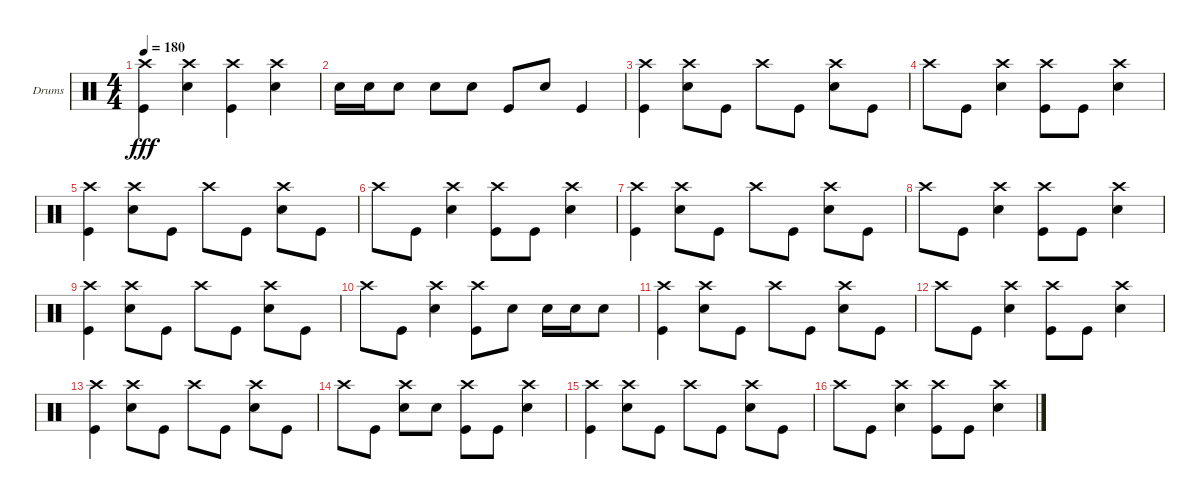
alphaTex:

\defaultSystemsLayout 4
\bracketExtendMode groupsimilarinstruments
\firstSystemTrackNameOrientation horizontal
\otherSystemsTrackNameOrientation horizontal
\track ("Drumkit" "Drums") {instrument percussion}
\staff {score}
\articulation defaults
\ts (4 4)
\tempo 180
\clef neutral
\ks c
("Kick (hit)" "Crash high (hit)").4{dy fff} ("Snare (hit) 2" "Crash high (hit)").4 ("Kick (hit)" "Crash high (hit)").4 ("Snare (hit) 2" "Crash high (hit)").4 |
"Snare (hit) 2".16 "Snare (hit) 2".16 "Snare (hit) 2".8 "Snare (hit) 2".8 "Snare (hit) 2".8 "Kick (hit)".8 "Snare (hit) 2".8 "Kick (hit)".4 |
("Kick (hit)" "Crash high (hit)").4 ("Snare (hit) 2" "Crash high (hit)").8 "Kick (hit)".8 "Crash high (hit)".8 "Kick (hit)".8 ("Snare (hit) 2" "Crash high (hit)").8 "Kick (hit)".8 |
"Crash high (hit)".8 "Kick (hit)".8 ("Snare (hit) 2" "Crash high (hit)").4 ("Kick (hit)" "Crash high (hit)").8 "Kick (hit)".8 ("Snare (hit) 2" "Crash high (hit)").4 |
("Kick (hit)" "Crash high (hit)").4 ("Snare (hit) 2" "Crash high (hit)").8 "Kick (hit)".8 "Crash high (hit)".8 "Kick (hit)".8 ("Snare (hit) 2" "Crash high (hit)").8 "Kick (hit)".8 |
"Crash high (hit)".8 "Kick (hit)".8 ("Snare (hit) 2" "Crash high (hit)").4 ("Kick (hit)" "Crash high (hit)").8 "Kick (hit)".8 ("Snare (hit) 2" "Crash high (hit)").4 |
("Kick (hit)" "Crash high (hit)").4 ("Snare (hit) 2" "Crash high (hit)").8 "Kick (hit)".8 "Crash high (hit)".8 "Kick (hit)".8 ("Snare (hit) 2" "Crash high (hit)").8 "Kick (hit)".8 |
"Crash high (hit)".8 "Kick (hit)".8 ("Snare (hit) 2" "Crash high (hit)").4 ("Kick (hit)" "Crash high (hit)").8 "Kick (hit)".8 ("Snare (hit) 2" "Crash high (hit)").4 |
("Kick (hit)" "Crash high (hit)").4 ("Snare (hit) 2" "Crash high (hit)").8 "Kick (hit)".8 "Crash high (hit)".8 "Kick (hit)".8 ("Snare (hit) 2" "Crash high (hit)").8 "Kick (hit)".8 |
"Crash high (hit)".8 "Kick (hit)".8 ("Snare (hit) 2" "Crash high (hit)").4 ("Crash high (hit)" "Kick (hit)").8 "Snare (hit) 2".8 "Snare (hit) 2".16 "Snare (hit) 2".16 "Snare (hit) 2".8 |
("Kick (hit)" "Crash high (hit)").4 ("Snare (hit) 2" "Crash high (hit)").8 "Kick (hit)".8 "Crash high (hit)".8 "Kick (hit)".8 ("Snare (hit) 2" "Crash high (hit)").8 "Kick (hit)".8 |
"Crash high (hit)".8 "Kick (hit)".8 ("Snare (hit) 2" "Crash high (hit)").4 ("Kick (hit)" "Crash high (hit)").8 "Kick (hit)".8 ("Snare (hit) 2" "Crash high (hit)").4 |
("Kick (hit)" "Crash high (hit)").4 ("Snare (hit) 2" "Crash high (hit)").8 "Kick (hit)".8 "Crash high (hit)".8 "Kick (hit)".8 ("Snare (hit) 2" "Crash high (hit)").8 "Kick (hit)".8 |
"Crash high (hit)".8 "Kick (hit)".8 ("Snare (hit) 2" "Crash high (hit)").8 "Snare (hit) 2".8 ("Kick (hit)" "Crash high (hit)").8 "Kick (hit)".8 ("Snare (hit) 2" "Crash high (hit)").4 |
("Kick (hit)" "Crash high (hit)").4 ("Snare (hit) 2" "Crash high (hit)").8 "Kick (hit)".8 "Crash high (hit)".8 "Kick (hit)".8 ("Snare (hit) 2" "Crash high (hit)").8 "Kick (hit)".8 |
"Crash high (hit)".8 "Kick (hit)".8 ("Snare (hit) 2" "Crash high (hit)").4 ("Kick (hit)" "Crash high (hit)").8 "Kick (hit)".8 ("Snare (hit) 2" "Crash high (hit)").4
